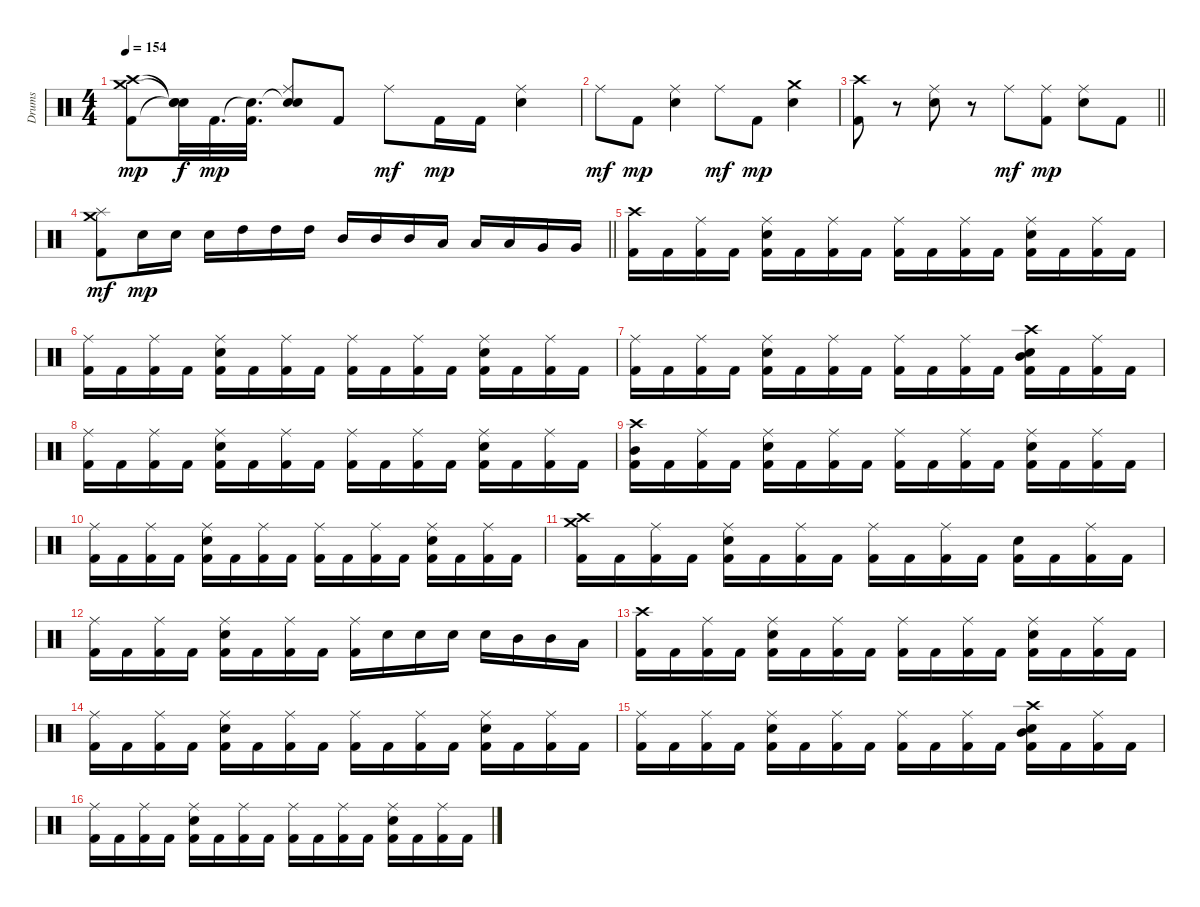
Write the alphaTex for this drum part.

\track ("Drums" "Drums") {instrument percussion}
\staff {score}
\articulation defaults
\ts (4 4)
\tempo 154
\clef neutral
\ks c
("Crash high (hit)" "Crash medium (hit)" "Kick (hit) 2").8{dy mp} ("Snare (hit)"{t} "Snare (hit)"{t} "Snare (hit)"{t}).32{dy f} "Kick (hit) 2".32{d dy mp} ("Snare (hit)"{t} "Kick (hit) 2").32{d} ("Snare (hit)"{t} "Ride (middle)" "Electric Snare (hit)").8 "Kick (hit) 2".8 "Ride (middle)".8{dy mf} "Kick (hit) 2".16{dy mp} "Kick (hit) 2".16 ("Ride (middle)" "Electric Snare (hit)").4 |
"Ride (middle)".8{dy mf} "Kick (hit) 2".8{dy mp} ("Ride (middle)" "Electric Snare (hit)").4 "Ride (middle)".8{dy mf} "Kick (hit) 2".8{dy mp} ("Crash medium (hit)" "Electric Snare (hit)").4 |
\barLineRight lightlight
("Crash high (hit)" "Kick (hit) 2").8 r.8 ("Ride (middle)" "Electric Snare (hit)").8 r.8 "Ride (middle)".8{dy mf} ("Ride (middle)" "Kick (hit) 2").8{dy mp} ("Ride (middle)" "Electric Snare (hit)").8 "Kick (hit) 2".8 |
\section ("" "")
\barLineRight lightlight
("Splash (hit)" "Crash medium (hit)" "Kick (hit) 2").8{dy mf} "Electric Snare (hit)".16{dy mp} "Electric Snare (hit)".16 "Electric Snare (hit)".16 "High Tom (hit)".16 "High Tom (hit)".16 "High Tom (hit)".16 "Mid Tom (hit)".16 "Mid Tom (hit)".16 "Mid Tom (hit)".16 "Low Tom (hit)".16 "Low Tom (hit)".16 "Low Tom (hit)".16 "Very Low Tom (hit)".16 "Very Low Tom (hit)".16 |
\section ("" "")
("Crash high (hit)" "Kick (hit) 2").16 "Kick (hit) 2".16 ("Ride (middle)" "Kick (hit) 2").16 "Kick (hit) 2".16 ("Ride (middle)" "Electric Snare (hit)" "Kick (hit) 2").16 "Kick (hit) 2".16 ("Ride (middle)" "Kick (hit) 2").16 "Kick (hit) 2".16 ("Ride (middle)" "Kick (hit) 2").16 "Kick (hit) 2".16 ("Ride (middle)" "Kick (hit) 2").16 "Kick (hit) 2".16 ("Ride (middle)" "Electric Snare (hit)" "Kick (hit) 2").16 "Kick (hit) 2".16 ("Ride (middle)" "Kick (hit) 2").16 "Kick (hit) 2".16 |
("Ride (middle)" "Kick (hit) 2").16 "Kick (hit) 2".16 ("Ride (middle)" "Kick (hit) 2").16 "Kick (hit) 2".16 ("Ride (middle)" "Electric Snare (hit)" "Kick (hit) 2").16 "Kick (hit) 2".16 ("Ride (middle)" "Kick (hit) 2").16 "Kick (hit) 2".16 ("Ride (middle)" "Kick (hit) 2").16 "Kick (hit) 2".16 ("Ride (middle)" "Kick (hit) 2").16 "Kick (hit) 2".16 ("Ride (middle)" "Electric Snare (hit)" "Kick (hit) 2").16 "Kick (hit) 2".16 ("Ride (middle)" "Kick (hit) 2").16 "Kick (hit) 2".16 |
("Ride (middle)" "Kick (hit) 2").16 "Kick (hit) 2".16 ("Ride (middle)" "Kick (hit) 2").16 "Kick (hit) 2".16 ("Ride (middle)" "Electric Snare (hit)" "Kick (hit) 2").16 "Kick (hit) 2".16 ("Ride (middle)" "Kick (hit) 2").16 "Kick (hit) 2".16 ("Ride (middle)" "Kick (hit) 2").16 "Kick (hit) 2".16 ("Ride (middle)" "Kick (hit) 2").16 "Kick (hit) 2".16 ("Crash high (hit)" "Mid Tom (hit)" "Electric Snare (hit)" "Kick (hit) 2").16 "Kick (hit) 2".16 ("Ride (middle)" "Kick (hit) 2").16 "Kick (hit) 2".16 |
("Ride (middle)" "Kick (hit) 2").16 "Kick (hit) 2".16 ("Ride (middle)" "Kick (hit) 2").16 "Kick (hit) 2".16 ("Ride (middle)" "Electric Snare (hit)" "Kick (hit) 2").16 "Kick (hit) 2".16 ("Ride (middle)" "Kick (hit) 2").16 "Kick (hit) 2".16 ("Ride (middle)" "Kick (hit) 2").16 "Kick (hit) 2".16 ("Ride (middle)" "Kick (hit) 2").16 "Kick (hit) 2".16 ("Ride (middle)" "Electric Snare (hit)" "Kick (hit) 2").16 "Kick (hit) 2".16 ("Ride (middle)" "Kick (hit) 2").16 "Kick (hit) 2".16 |
("Crash high (hit)" "Mid Tom (hit)" "Kick (hit) 2").16 "Kick (hit) 2".16 ("Ride (middle)" "Kick (hit) 2").16 "Kick (hit) 2".16 ("Ride (middle)" "Electric Snare (hit)" "Kick (hit) 2").16 "Kick (hit) 2".16 ("Ride (middle)" "Kick (hit) 2").16 "Kick (hit) 2".16 ("Ride (middle)" "Kick (hit) 2").16 "Kick (hit) 2".16 ("Ride (middle)" "Kick (hit) 2").16 "Kick (hit) 2".16 ("Ride (middle)" "Electric Snare (hit)" "Kick (hit) 2").16 "Kick (hit) 2".16 ("Ride (middle)" "Kick (hit) 2").16 "Kick (hit) 2".16 |
("Ride (middle)" "Kick (hit) 2").16 "Kick (hit) 2".16 ("Ride (middle)" "Kick (hit) 2").16 "Kick (hit) 2".16 ("Ride (middle)" "Electric Snare (hit)" "Kick (hit) 2").16 "Kick (hit) 2".16 ("Ride (middle)" "Kick (hit) 2").16 "Kick (hit) 2".16 ("Ride (middle)" "Kick (hit) 2").16 "Kick (hit) 2".16 ("Ride (middle)" "Kick (hit) 2").16 "Kick (hit) 2".16 ("Ride (middle)" "Electric Snare (hit)" "Kick (hit) 2").16 "Kick (hit) 2".16 ("Ride (middle)" "Kick (hit) 2").16 "Kick (hit) 2".16 |
("Crash high (hit)" "Crash medium (hit)" "Kick (hit) 2").16 "Kick (hit) 2".16 ("Ride (middle)" "Kick (hit) 2").16 "Kick (hit) 2".16 ("Ride (middle)" "Electric Snare (hit)" "Kick (hit) 2").16 "Kick (hit) 2".16 ("Ride (middle)" "Kick (hit) 2").16 "Kick (hit) 2".16 ("Ride (middle)" "Kick (hit) 2").16 "Kick (hit) 2".16 ("Ride (middle)" "Kick (hit) 2").16 "Kick (hit) 2".16 ("Electric Snare (hit)" "Kick (hit) 2").16 "Kick (hit) 2".16 ("Ride (middle)" "Kick (hit) 2").16 "Kick (hit) 2".16 |
("Ride (middle)" "Kick (hit) 2").16 "Kick (hit) 2".16 ("Ride (middle)" "Kick (hit) 2").16 "Kick (hit) 2".16 ("Ride (middle)" "Electric Snare (hit)" "Kick (hit) 2").16 "Kick (hit) 2".16 ("Ride (middle)" "Kick (hit) 2").16 "Kick (hit) 2".16 ("Ride (middle)" "Kick (hit) 2").16 "Electric Snare (hit)".16 "Electric Snare (hit)".16 "Electric Snare (hit)".16 "Electric Snare (hit)".16 "Mid Tom (hit)".16 "Mid Tom (hit)".16 "Low Tom (hit)".16 |
("Crash high (hit)" "Kick (hit) 2").16 "Kick (hit) 2".16 ("Ride (middle)" "Kick (hit) 2").16 "Kick (hit) 2".16 ("Ride (middle)" "Electric Snare (hit)" "Kick (hit) 2").16 "Kick (hit) 2".16 ("Ride (middle)" "Kick (hit) 2").16 "Kick (hit) 2".16 ("Ride (middle)" "Kick (hit) 2").16 "Kick (hit) 2".16 ("Ride (middle)" "Kick (hit) 2").16 "Kick (hit) 2".16 ("Ride (middle)" "Electric Snare (hit)" "Kick (hit) 2").16 "Kick (hit) 2".16 ("Ride (middle)" "Kick (hit) 2").16 "Kick (hit) 2".16 |
("Ride (middle)" "Kick (hit) 2").16 "Kick (hit) 2".16 ("Ride (middle)" "Kick (hit) 2").16 "Kick (hit) 2".16 ("Ride (middle)" "Electric Snare (hit)" "Kick (hit) 2").16 "Kick (hit) 2".16 ("Ride (middle)" "Kick (hit) 2").16 "Kick (hit) 2".16 ("Ride (middle)" "Kick (hit) 2").16 "Kick (hit) 2".16 ("Ride (middle)" "Kick (hit) 2").16 "Kick (hit) 2".16 ("Ride (middle)" "Electric Snare (hit)" "Kick (hit) 2").16 "Kick (hit) 2".16 ("Ride (middle)" "Kick (hit) 2").16 "Kick (hit) 2".16 |
("Ride (middle)" "Kick (hit) 2").16 "Kick (hit) 2".16 ("Ride (middle)" "Kick (hit) 2").16 "Kick (hit) 2".16 ("Ride (middle)" "Electric Snare (hit)" "Kick (hit) 2").16 "Kick (hit) 2".16 ("Ride (middle)" "Kick (hit) 2").16 "Kick (hit) 2".16 ("Ride (middle)" "Kick (hit) 2").16 "Kick (hit) 2".16 ("Ride (middle)" "Kick (hit) 2").16 "Kick (hit) 2".16 ("Crash high (hit)" "Mid Tom (hit)" "Electric Snare (hit)" "Kick (hit) 2").16 "Kick (hit) 2".16 ("Ride (middle)" "Kick (hit) 2").16 "Kick (hit) 2".16 |
("Ride (middle)" "Kick (hit) 2").16 "Kick (hit) 2".16 ("Ride (middle)" "Kick (hit) 2").16 "Kick (hit) 2".16 ("Ride (middle)" "Electric Snare (hit)" "Kick (hit) 2").16 "Kick (hit) 2".16 ("Ride (middle)" "Kick (hit) 2").16 "Kick (hit) 2".16 ("Ride (middle)" "Kick (hit) 2").16 "Kick (hit) 2".16 ("Ride (middle)" "Kick (hit) 2").16 "Kick (hit) 2".16 ("Ride (middle)" "Electric Snare (hit)" "Kick (hit) 2").16 "Kick (hit) 2".16 ("Ride (middle)" "Kick (hit) 2").16 "Kick (hit) 2".16
